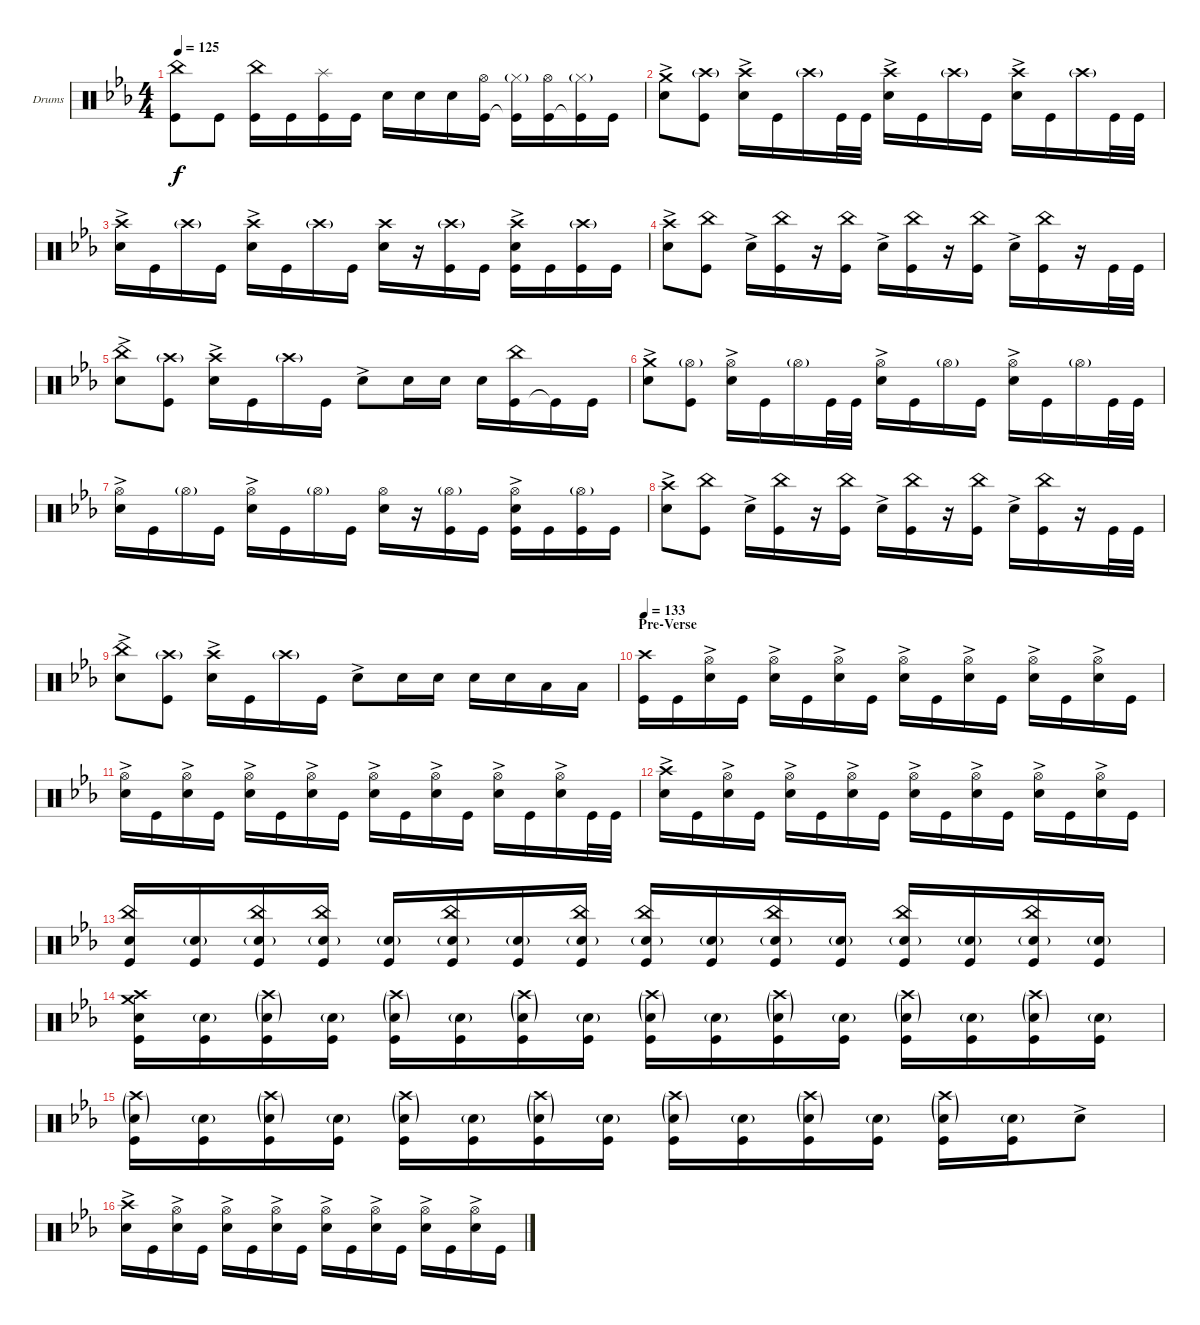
\bracketExtendMode groupsimilarinstruments
\firstSystemTrackNameOrientation horizontal
\otherSystemsTrackNameOrientation horizontal
\track ("Drumkit" "Drums") {instrument percussion}
\staff {score}
\articulation defaults
\ts (4 4)
\tempo 125
\clef neutral
\ks cminor
("Kick (hit)" "China (hit)").8{dy f} "Kick (hit)".8 ("Kick (hit)" "China (hit)").16 "Kick (hit)".16 ("Kick (hit)" "Splash (hit)").16 "Kick (hit)".16 "Snare (hit) 2".16 "Snare (hit) 2".16 "Snare (hit) 2".16 ("Kick (hit)" "Hi-Hat (open)").16 ("Kick (hit)"{t} "Hi-Hat (closed)"{g}).16 ("Kick (hit)" "Hi-Hat (open)").16 ("Kick (hit)"{t} "Hi-Hat (closed)"{g}).16 "Kick (hit)".16 |
("Snare (hit) 2"{ac} "Crash medium (hit)").8 ("Kick (hit)" "Crash high (hit)"{g}).8 ("Snare (hit) 2"{ac} "Crash high (hit)").16 "Kick (hit)".16 "Crash high (hit)"{g}.16 "Kick (hit)".32 "Kick (hit)".32 ("Snare (hit) 2"{ac} "Crash high (hit)").16 "Kick (hit)".16 "Crash high (hit)"{g}.16 "Kick (hit)".16 ("Snare (hit) 2"{ac} "Crash high (hit)").16 "Kick (hit)".16 "Crash high (hit)"{g}.16 "Kick (hit)".32 "Kick (hit)".32 |
("Snare (hit) 2"{ac} "Crash high (hit)").16 "Kick (hit)".16 "Crash high (hit)"{g}.16 "Kick (hit)".16 ("Snare (hit) 2"{ac} "Crash high (hit)").16 "Kick (hit)".16 "Crash high (hit)"{g}.16 "Kick (hit)".16 ("Snare (hit) 2" "Crash high (hit)").16 r.16 ("Kick (hit)" "Crash high (hit)"{g}).16 "Kick (hit)".16 ("Kick (hit)" "Snare (hit) 2"{ac} "Crash high (hit)").16 "Kick (hit)".16 ("Kick (hit)" "Crash high (hit)"{g}).16 "Kick (hit)".16 |
("Snare (hit) 2"{ac} "Crash high (hit)").8 ("Kick (hit)" "China (hit)").8 "Snare (hit) 2"{ac}.16 ("Kick (hit)" "China (hit)").16 r.16 ("Kick (hit)" "China (hit)").16 "Snare (hit) 2"{ac}.16 ("Kick (hit)" "China (hit)").16 r.16 ("Kick (hit)" "China (hit)").16 "Snare (hit) 2"{ac}.16 ("Kick (hit)" "China (hit)").16 r.16 "Kick (hit)".32 "Kick (hit)".32 |
("Snare (hit) 2"{ac} "China (hit)").8 ("Kick (hit)" "Crash high (hit)"{g}).8 ("Snare (hit) 2"{ac} "Crash high (hit)").16 "Kick (hit)".16 "Crash high (hit)"{g}.16 "Kick (hit)".16 "Snare (hit) 2"{ac}.8 "Snare (hit) 2".16 "Snare (hit) 2".16 "Snare (hit) 2".16 ("Kick (hit)" "China (hit)").16 "Kick (hit)"{t}.16 "Kick (hit)".16 |
("Snare (hit) 2"{ac} "Crash medium (hit)").8 ("Kick (hit)" "Hi-Hat (open)"{g}).8 ("Snare (hit) 2"{ac} "Hi-Hat (open)").16 "Kick (hit)".16 "Hi-Hat (open)"{g}.16 "Kick (hit)".32 "Kick (hit)".32 ("Snare (hit) 2"{ac} "Hi-Hat (open)").16 "Kick (hit)".16 "Hi-Hat (open)"{g}.16 "Kick (hit)".16 ("Snare (hit) 2"{ac} "Hi-Hat (open)").16 "Kick (hit)".16 "Hi-Hat (open)"{g}.16 "Kick (hit)".32 "Kick (hit)".32 |
("Snare (hit) 2"{ac} "Hi-Hat (open)").16 "Kick (hit)".16 "Hi-Hat (open)"{g}.16 "Kick (hit)".16 ("Snare (hit) 2"{ac} "Hi-Hat (open)").16 "Kick (hit)".16 "Hi-Hat (open)"{g}.16 "Kick (hit)".16 ("Snare (hit) 2" "Hi-Hat (open)").16 r.16 ("Kick (hit)" "Hi-Hat (open)"{g}).16 "Kick (hit)".16 ("Kick (hit)" "Snare (hit) 2"{ac} "Hi-Hat (open)").16 "Kick (hit)".16 ("Kick (hit)" "Hi-Hat (open)"{g}).16 "Kick (hit)".16 |
("Snare (hit) 2"{ac} "Crash high (hit)").8 ("Kick (hit)" "China (hit)").8 "Snare (hit) 2"{ac}.16 ("Kick (hit)" "China (hit)").16 r.16 ("Kick (hit)" "China (hit)").16 "Snare (hit) 2"{ac}.16 ("Kick (hit)" "China (hit)").16 r.16 ("Kick (hit)" "China (hit)").16 "Snare (hit) 2"{ac}.16 ("Kick (hit)" "China (hit)").16 r.16 "Kick (hit)".32 "Kick (hit)".32 |
("Snare (hit) 2"{ac} "China (hit)").8 ("Kick (hit)" "Crash high (hit)"{g}).8 ("Snare (hit) 2"{ac} "Crash high (hit)").16 "Kick (hit)".16 "Crash high (hit)"{g}.16 "Kick (hit)".16 "Snare (hit) 2"{ac}.8 "Snare (hit) 2".16 "Snare (hit) 2".16 "Snare (hit) 2".16 "Snare (hit) 2".16 "Low Tom (hit)".16 "Low Tom (hit)".16 |
\section ("" "Pre-Verse")
\tempo 133
("Kick (hit)" "Crash high (hit)").16 "Kick (hit)".16 ("Snare (hit) 2"{ac} "Hi-Hat (open)").16 "Kick (hit)".16 ("Snare (hit) 2"{ac} "Hi-Hat (open)").16 "Kick (hit)".16 ("Snare (hit) 2"{ac} "Hi-Hat (open)").16 "Kick (hit)".16 ("Snare (hit) 2"{ac} "Hi-Hat (open)").16 "Kick (hit)".16 ("Snare (hit) 2"{ac} "Hi-Hat (open)").16 "Kick (hit)".16 ("Snare (hit) 2"{ac} "Hi-Hat (open)").16 "Kick (hit)".16 ("Snare (hit) 2"{ac} "Hi-Hat (open)").16 "Kick (hit)".16 |
("Snare (hit) 2"{ac} "Hi-Hat (open)").16 "Kick (hit)".16 ("Snare (hit) 2"{ac} "Hi-Hat (open)").16 "Kick (hit)".16 ("Snare (hit) 2"{ac} "Hi-Hat (open)").16 "Kick (hit)".16 ("Snare (hit) 2"{ac} "Hi-Hat (open)").16 "Kick (hit)".16 ("Snare (hit) 2"{ac} "Hi-Hat (open)").16 "Kick (hit)".16 ("Snare (hit) 2"{ac} "Hi-Hat (open)").16 "Kick (hit)".16 ("Snare (hit) 2"{ac} "Hi-Hat (open)").16 "Kick (hit)".16 ("Snare (hit) 2"{ac} "Hi-Hat (open)").16 "Kick (hit)".32 "Kick (hit)".32 |
("Snare (hit) 2"{ac} "Crash high (hit)").16 "Kick (hit)".16 ("Snare (hit) 2"{ac} "Hi-Hat (open)").16 "Kick (hit)".16 ("Snare (hit) 2"{ac} "Hi-Hat (open)").16 "Kick (hit)".16 ("Snare (hit) 2"{ac} "Hi-Hat (open)").16 "Kick (hit)".16 ("Snare (hit) 2"{ac} "Hi-Hat (open)").16 "Kick (hit)".16 ("Snare (hit) 2"{ac} "Hi-Hat (open)").16 "Kick (hit)".16 ("Snare (hit) 2"{ac} "Hi-Hat (open)").16 "Kick (hit)".16 ("Snare (hit) 2"{ac} "Hi-Hat (open)").16 "Kick (hit)".16 |
("Kick (hit)" "Snare (hit) 2" "China (hit)").16 ("Kick (hit)" "Snare (hit) 2"{g}).16 ("Kick (hit)" "Snare (hit) 2"{g} "China (hit)").16 ("Kick (hit)" "Snare (hit) 2"{g} "China (hit)").16 ("Kick (hit)" "Snare (hit) 2"{g}).16 ("Kick (hit)" "Snare (hit) 2"{g} "China (hit)").16 ("Kick (hit)" "Snare (hit) 2"{g}).16 ("Kick (hit)" "Snare (hit) 2"{g} "China (hit)").16 ("Kick (hit)" "Snare (hit) 2"{g} "China (hit)").16 ("Kick (hit)" "Snare (hit) 2"{g}).16 ("Kick (hit)" "Snare (hit) 2"{g} "China (hit)").16 ("Kick (hit)" "Snare (hit) 2"{g}).16 ("Kick (hit)" "Snare (hit) 2"{g} "China (hit)").16 ("Kick (hit)" "Snare (hit) 2"{g}).16 ("Kick (hit)" "Snare (hit) 2"{g} "China (hit)").16 ("Kick (hit)" "Snare (hit) 2"{g}).16 |
("Kick (hit)" "Snare (hit) 2" "Crash high (hit)" "Crash medium (hit)").16 ("Snare (hit) 2"{g} "Kick (hit)").16 ("Snare (hit) 2"{g} "Kick (hit)" "Crash high (hit)"{g}).16 ("Snare (hit) 2"{g} "Kick (hit)").16 ("Snare (hit) 2"{g} "Kick (hit)" "Crash high (hit)"{g}).16 ("Snare (hit) 2"{g} "Kick (hit)").16 ("Snare (hit) 2"{g} "Kick (hit)" "Crash high (hit)"{g}).16 ("Snare (hit) 2"{g} "Kick (hit)").16 ("Snare (hit) 2"{g} "Kick (hit)" "Crash high (hit)"{g}).16 ("Snare (hit) 2"{g} "Kick (hit)").16 ("Snare (hit) 2"{g} "Kick (hit)" "Crash high (hit)"{g}).16 ("Snare (hit) 2"{g} "Kick (hit)").16 ("Snare (hit) 2"{g} "Kick (hit)" "Crash high (hit)"{g}).16 ("Snare (hit) 2"{g} "Kick (hit)").16 ("Snare (hit) 2"{g} "Kick (hit)" "Crash high (hit)"{g}).16 ("Snare (hit) 2"{g} "Kick (hit)").16 |
("Kick (hit)" "Snare (hit) 2"{g} "Crash high (hit)"{g}).16 ("Snare (hit) 2"{g} "Kick (hit)").16 ("Snare (hit) 2"{g} "Kick (hit)" "Crash high (hit)"{g}).16 ("Snare (hit) 2"{g} "Kick (hit)").16 ("Snare (hit) 2"{g} "Kick (hit)" "Crash high (hit)"{g}).16 ("Snare (hit) 2"{g} "Kick (hit)").16 ("Snare (hit) 2"{g} "Kick (hit)" "Crash high (hit)"{g}).16 ("Snare (hit) 2"{g} "Kick (hit)").16 ("Snare (hit) 2"{g} "Kick (hit)" "Crash high (hit)"{g}).16 ("Snare (hit) 2"{g} "Kick (hit)").16 ("Snare (hit) 2"{g} "Kick (hit)" "Crash high (hit)"{g}).16 ("Snare (hit) 2"{g} "Kick (hit)").16 ("Snare (hit) 2"{g} "Kick (hit)" "Crash high (hit)"{g}).16 ("Snare (hit) 2"{g} "Kick (hit)").16 "Snare (hit) 2"{ac}.8 |
("Snare (hit) 2"{ac} "Crash high (hit)").16 "Kick (hit)".16 ("Snare (hit) 2"{ac} "Hi-Hat (open)").16 "Kick (hit)".16 ("Snare (hit) 2"{ac} "Hi-Hat (open)").16 "Kick (hit)".16 ("Snare (hit) 2"{ac} "Hi-Hat (open)").16 "Kick (hit)".16 ("Snare (hit) 2"{ac} "Hi-Hat (open)").16 "Kick (hit)".16 ("Snare (hit) 2"{ac} "Hi-Hat (open)").16 "Kick (hit)".16 ("Snare (hit) 2"{ac} "Hi-Hat (open)").16 "Kick (hit)".16 ("Snare (hit) 2"{ac} "Hi-Hat (open)").16 "Kick (hit)".16
